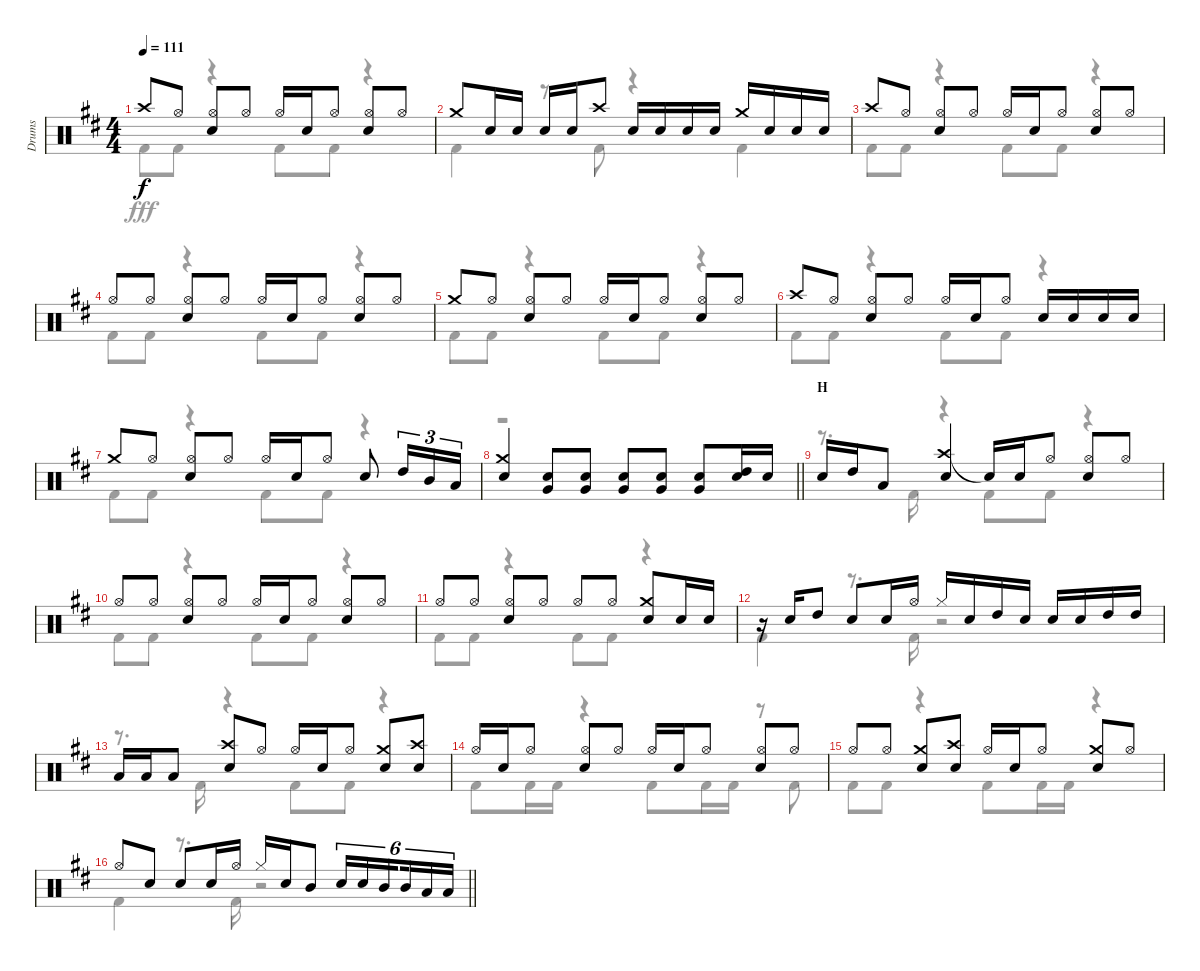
\track ("Drums" "Drums") {instrument percussion}
\staff {score}
\articulation defaults
\voice
\ts (4 4)
\tempo 111
\clef neutral
\ks d "Crash high (hit)".8{dy f} "Hi-Hat (open)".8
("Hi-Hat (open)" "Snare (hit) 2").8 "Hi-Hat (open)".8 "Hi-Hat (open)".16 "Snare (hit) 2".16 "Hi-Hat (open)".8 ("Hi-Hat (open)" "Snare (hit) 2").8 "Hi-Hat (open)".8 |
"Crash medium (hit)".8 "Snare (hit) 2".16 "Snare (hit) 2".16 "Snare (hit) 2".16 "Snare (hit) 2".16 "Crash high (hit)".8 "Snare (hit) 2".16 "Snare (hit) 2".16 "Snare (hit) 2".16 "Snare (hit) 2".16 "Crash medium (hit)".16 "Snare (hit) 2".16 "Snare (hit) 2".16 "Snare (hit) 2".16 |
"Crash high (hit)".8 "Hi-Hat (open)".8 ("Hi-Hat (open)" "Snare (hit) 2").8 "Hi-Hat (open)".8 "Hi-Hat (open)".16 "Snare (hit) 2".16 "Hi-Hat (open)".8 ("Hi-Hat (open)" "Snare (hit) 2").8 "Hi-Hat (open)".8 |
"Hi-Hat (open)".8 "Hi-Hat (open)".8 ("Hi-Hat (open)" "Snare (hit) 2").8 "Hi-Hat (open)".8 "Hi-Hat (open)".16 "Snare (hit) 2".16 "Hi-Hat (open)".8 ("Hi-Hat (open)" "Snare (hit) 2").8 "Hi-Hat (open)".8 |
"Crash medium (hit)".8 "Hi-Hat (open)".8 ("Hi-Hat (open)" "Snare (hit) 2").8 "Hi-Hat (open)".8 "Hi-Hat (open)".16 "Snare (hit) 2".16 "Hi-Hat (open)".8 ("Hi-Hat (open)" "Snare (hit) 2").8 "Hi-Hat (open)".8 |
"Crash high (hit)".8 "Hi-Hat (open)".8 ("Hi-Hat (open)" "Snare (hit) 2").8 "Hi-Hat (open)".8 "Hi-Hat (open)".16 "Snare (hit) 2".16 "Hi-Hat (open)".8 "Snare (hit) 2".16 "Snare (hit) 2".16 "Snare (hit) 2".16 "Snare (hit) 2".16 |
"Crash medium (hit)".8 "Hi-Hat (open)".8 ("Hi-Hat (open)" "Snare (hit) 2").8 "Hi-Hat (open)".8 "Hi-Hat (open)".16 "Snare (hit) 2".16 "Hi-Hat (open)".8 "Snare (hit) 2".8 "High Tom (hit)".16{tu (3 2)} "Mid Tom (hit)".16{tu (3 2)} "Low Tom (hit)".16{tu (3 2)} |
\barLineRight lightlight
("Crash medium (hit)" "Snare (hit) 2").4 ("Snare (hit) 2" "Very Low Tom (hit)").8 ("Snare (hit) 2" "Very Low Tom (hit)").8 ("Snare (hit) 2" "Very Low Tom (hit)").8 ("Snare (hit) 2" "Very Low Tom (hit)").8 ("Snare (hit) 2" "Very Low Tom (hit)").8 ("High Tom (hit)" "Snare (hit) 2").16 "Snare (hit) 2".16 |
\section ("" "H")
"Snare (hit) 2".16 "High Tom (hit)".16 "Low Tom (hit)".8 ("Crash high (hit)" "Snare (hit) 2").4 "Snare (hit)"{t}.16 "Snare (hit) 2".16 "Hi-Hat (open)".8 ("Hi-Hat (open)" "Snare (hit) 2").8 "Hi-Hat (open)".8 |
"Hi-Hat (open)".8 "Hi-Hat (open)".8 ("Hi-Hat (open)" "Snare (hit) 2").8 "Hi-Hat (open)".8 "Hi-Hat (open)".16 "Snare (hit) 2".16 "Hi-Hat (open)".8 ("Hi-Hat (open)" "Snare (hit) 2").8 "Hi-Hat (open)".8 |
"Hi-Hat (open)".8 "Hi-Hat (open)".8 ("Hi-Hat (open)" "Snare (hit) 2").8 "Hi-Hat (open)".8 "Hi-Hat (open)".8 "Hi-Hat (open)".8 ("Crash medium (hit)" "Snare (hit) 2").8 "Snare (hit) 2".16 "Snare (hit) 2".16 |
r.16 "Snare (hit) 2".16 "High Tom (hit)".8 "Snare (hit) 2".8 "Snare (hit) 2".16 "Hi-Hat (open)".16 "Hi-Hat (closed)".16 "Snare (hit) 2".16 "High Tom (hit)".16 "Snare (hit) 2".16 "Snare (hit) 2".16 "Snare (hit) 2".16 "High Tom (hit)".16 "High Tom (hit)".16 |
"Low Tom (hit)".16 "Low Tom (hit)".16 "Low Tom (hit)".8 ("Crash high (hit)" "Snare (hit) 2").8 "Hi-Hat (open)".8 "Hi-Hat (open)".16 "Snare (hit) 2".16 "Hi-Hat (open)".8 ("Crash medium (hit)" "Snare (hit) 2").8 ("Crash high (hit)" "Snare (hit) 2").8 |
"Hi-Hat (open)".16 "Snare (hit) 2".16 "Hi-Hat (open)".8 ("Hi-Hat (open)" "Snare (hit) 2").8 "Hi-Hat (open)".8 "Hi-Hat (open)".16 "Snare (hit) 2".16 "Hi-Hat (open)".8 ("Hi-Hat (open)" "Snare (hit) 2").8 "Hi-Hat (open)".8 |
"Hi-Hat (open)".8 "Hi-Hat (open)".8 ("Crash medium (hit)" "Snare (hit) 2").8 ("Crash high (hit)" "Snare (hit) 2").8 "Hi-Hat (open)".16 "Snare (hit) 2".16 "Hi-Hat (open)".8 ("Crash medium (hit)" "Snare (hit) 2").8 "Hi-Hat (open)".8 |
\barLineRight lightlight "Hi-Hat (open)".8 "Snare (hit) 2".8 "Snare (hit) 2".8 "Snare (hit) 2".16 "Hi-Hat (open)".16 "Hi-Hat (closed)".16 "Snare (hit) 2".16 "Mid Tom (hit)".8 "Snare (hit) 2".16{tu (6 4)} "Snare (hit) 2".16{tu (6 4)} "Mid Tom (hit)".16{tu (6 4) beam splitsecondary} "Mid Tom (hit)".16{tu (6 4)} "Low Tom (hit)".16{tu (6 4)} "Low Tom (hit)".16{tu (6 4)}
\voice
\clef neutral
\ottava regular
\simile none
\ks d "Kick (hit) 2".8{dy fff} "Kick (hit) 2".8
r.4 "Kick (hit) 2".8 "Kick (hit) 2".8 r.4 |
"Kick (hit) 2".4 r.8 "Kick (hit) 2".8 r.4 "Kick (hit) 2".4 |
"Kick (hit) 2".8 "Kick (hit) 2".8 r.4 "Kick (hit) 2".8 "Kick (hit) 2".8 r.4 |
"Kick (hit) 2".8 "Kick (hit) 2".8 r.4 "Kick (hit) 2".8 "Kick (hit) 2".8 r.4 |
"Kick (hit) 2".8 "Kick (hit) 2".8 r.4 "Kick (hit) 2".8 "Kick (hit) 2".8 r.4 |
"Kick (hit) 2".8 "Kick (hit) 2".8 r.4 "Kick (hit) 2".8 "Kick (hit) 2".8 r.4 |
"Kick (hit) 2".8 "Kick (hit) 2".8 r.4 "Kick (hit) 2".8 "Kick (hit) 2".8 r.4 |
\barLineRight lightlight
r.1 |
r.8{d} "Kick (hit) 2".16 r.4 "Kick (hit) 2".8 "Kick (hit) 2".8 r.4 |
"Kick (hit) 2".8 "Kick (hit) 2".8 r.4 "Kick (hit) 2".8 "Kick (hit) 2".8 r.4 |
"Kick (hit) 2".8 "Kick (hit) 2".8 r.4 "Kick (hit) 2".8 "Kick (hit) 2".8 r.4 |
"Kick (hit) 2".4 r.8{d} "Kick (hit) 2".16 r.2 |
r.8{d} "Kick (hit) 2".16 r.4 "Kick (hit) 2".8 "Kick (hit) 2".8 r.4 |
"Kick (hit) 2".8 "Kick (hit) 2".16 "Kick (hit) 2".16 r.4 "Kick (hit) 2".8 "Kick (hit) 2".16 "Kick (hit) 2".16 r.8 "Kick (hit) 2".8 |
"Kick (hit) 2".8 "Kick (hit) 2".8 r.4 "Kick (hit) 2".8 "Kick (hit) 2".16 "Kick (hit) 2".16 r.4 |
\barLineRight lightlight "Kick (hit) 2".4
r.8{d} "Kick (hit) 2".16 r.2
